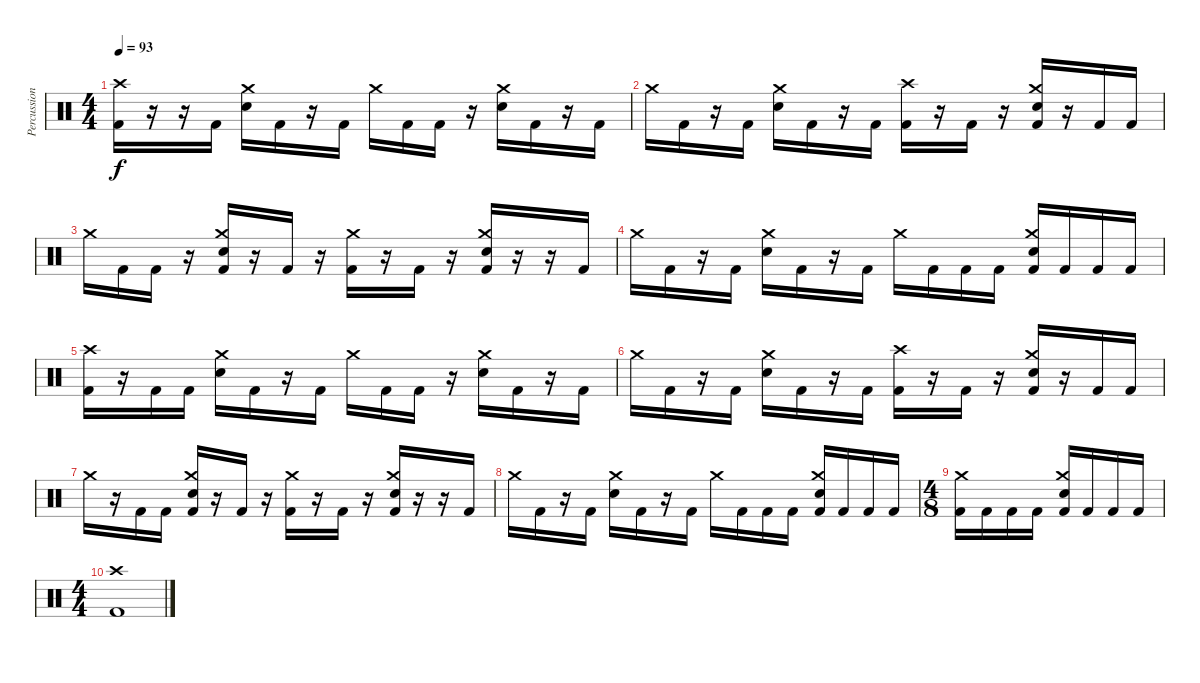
\track ("Percussions" "Percussion") {instrument percussion}
\staff {score}
\articulation defaults
\ts (4 4)
\tempo 93
\clef neutral
\ks c
("Crash high (hit)" "Kick (hit) 2").16{dy f} r.16 r.16 "Kick (hit) 2".16 ("Crash medium (hit)" "Electric Snare (hit)").16 "Kick (hit) 2".16 r.16 "Kick (hit) 2".16 "Crash medium (hit)".16 "Kick (hit) 2".16 "Kick (hit) 2".16 r.16 ("Crash medium (hit)" "Electric Snare (hit)").16 "Kick (hit) 2".16 r.16 "Kick (hit) 2".16 |
"Crash medium (hit)".16 "Kick (hit) 2".16 r.16 "Kick (hit) 2".16 ("Crash medium (hit)" "Electric Snare (hit)").16 "Kick (hit) 2".16 r.16 "Kick (hit) 2".16 ("Crash high (hit)" "Kick (hit) 2").16 r.16 "Kick (hit) 2".16 r.16 ("Crash medium (hit)" "Electric Snare (hit)" "Kick (hit) 2").16 r.16 "Kick (hit) 2".16 "Kick (hit) 2".16 |
"Crash medium (hit)".16 "Kick (hit) 2".16 "Kick (hit) 2".16 r.16 ("Crash medium (hit)" "Electric Snare (hit)" "Kick (hit) 2").16 r.16 "Kick (hit) 2".16 r.16 ("Crash medium (hit)" "Kick (hit) 2").16 r.16 "Kick (hit) 2".16 r.16 ("Crash medium (hit)" "Electric Snare (hit)" "Kick (hit) 2").16 r.16 r.16 "Kick (hit) 2".16 |
"Crash medium (hit)".16 "Kick (hit) 2".16 r.16 "Kick (hit) 2".16 ("Crash medium (hit)" "Electric Snare (hit)").16 "Kick (hit) 2".16 r.16 "Kick (hit) 2".16 "Crash medium (hit)".16 "Kick (hit) 2".16 "Kick (hit) 2".16 "Kick (hit) 2".16 ("Crash medium (hit)" "Electric Snare (hit)" "Kick (hit) 2").16 "Kick (hit) 2".16 "Kick (hit) 2".16 "Kick (hit) 2".16 |
("Crash high (hit)" "Kick (hit) 2").16 r.16 "Kick (hit) 2".16 "Kick (hit) 2".16 ("Crash medium (hit)" "Electric Snare (hit)").16 "Kick (hit) 2".16 r.16 "Kick (hit) 2".16 "Crash medium (hit)".16 "Kick (hit) 2".16 "Kick (hit) 2".16 r.16 ("Crash medium (hit)" "Electric Snare (hit)").16 "Kick (hit) 2".16 r.16 "Kick (hit) 2".16 |
"Crash medium (hit)".16 "Kick (hit) 2".16 r.16 "Kick (hit) 2".16 ("Crash medium (hit)" "Electric Snare (hit)").16 "Kick (hit) 2".16 r.16 "Kick (hit) 2".16 ("Crash high (hit)" "Kick (hit) 2").16 r.16 "Kick (hit) 2".16 r.16 ("Crash medium (hit)" "Electric Snare (hit)" "Kick (hit) 2").16 r.16 "Kick (hit) 2".16 "Kick (hit) 2".16 |
"Crash medium (hit)".16 r.16 "Kick (hit) 2".16 "Kick (hit) 2".16 ("Crash medium (hit)" "Electric Snare (hit)" "Kick (hit) 2").16 r.16 "Kick (hit) 2".16 r.16 ("Crash medium (hit)" "Kick (hit) 2").16 r.16 "Kick (hit) 2".16 r.16 ("Crash medium (hit)" "Electric Snare (hit)" "Kick (hit) 2").16 r.16 r.16 "Kick (hit) 2".16 |
"Crash medium (hit)".16 "Kick (hit) 2".16 r.16 "Kick (hit) 2".16 ("Crash medium (hit)" "Electric Snare (hit)").16 "Kick (hit) 2".16 r.16 "Kick (hit) 2".16 "Crash medium (hit)".16 "Kick (hit) 2".16 "Kick (hit) 2".16 "Kick (hit) 2".16 ("Crash medium (hit)" "Electric Snare (hit)" "Kick (hit) 2").16 "Kick (hit) 2".16 "Kick (hit) 2".16 "Kick (hit) 2".16 |
\ts (4 8)
("Crash medium (hit)" "Kick (hit) 2").16 "Kick (hit) 2".16 "Kick (hit) 2".16 "Kick (hit) 2".16 ("Crash medium (hit)" "Electric Snare (hit)" "Kick (hit) 2").16 "Kick (hit) 2".16 "Kick (hit) 2".16 "Kick (hit) 2".16 |
\ts (4 4)
("Crash high (hit)" "Kick (hit) 2").1
